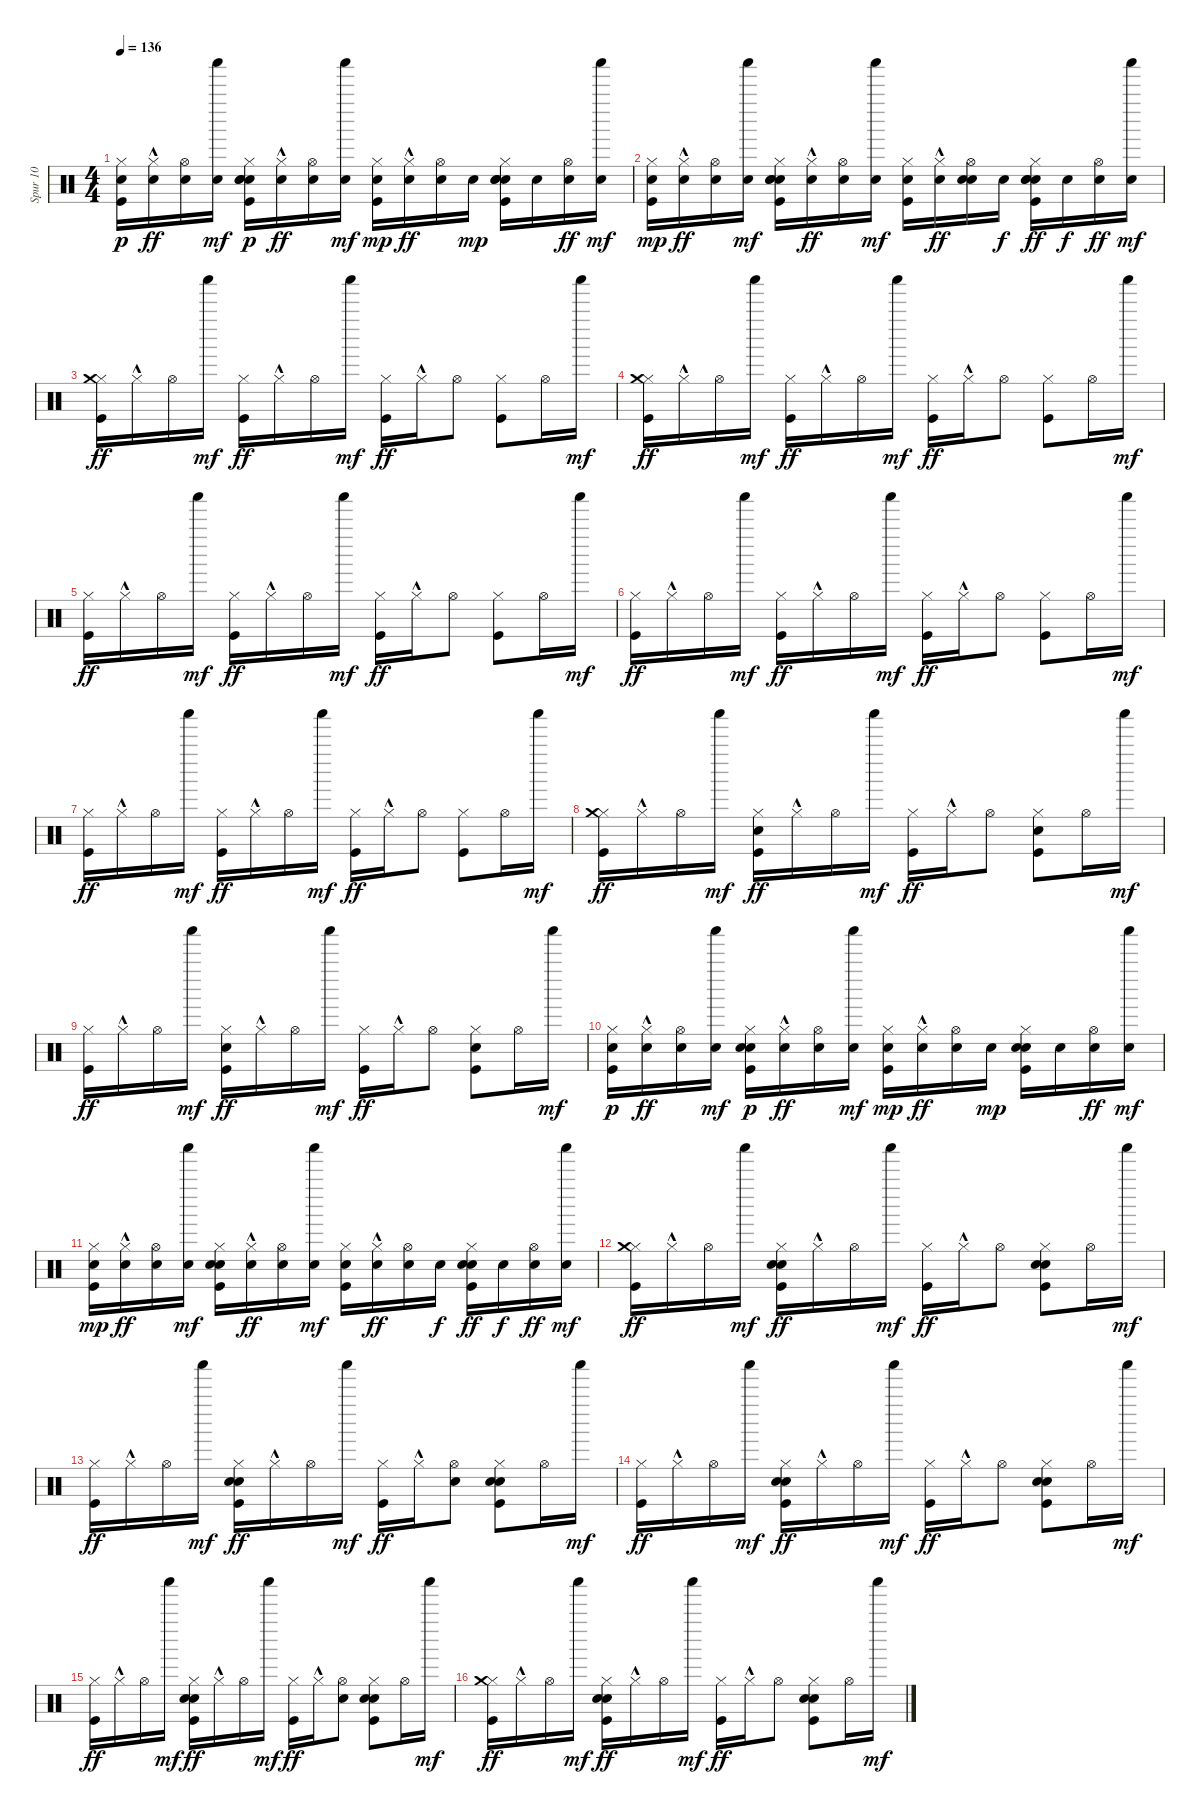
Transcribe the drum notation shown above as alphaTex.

\track ("Spur 10" "Spur 10") {instrument percussion}
\staff {score}
\articulation defaults
\ts (4 4)
\tempo 136
\clef neutral
\ks c
("Kick (hit)" "Snare (hit) 2" "Hi-Hat (closed)").16{dy p} ("Snare (hit) 2" "Hi-Hat (closed)"{hac}).16{dy ff} ("Snare (hit) 2" "Hi-Hat (open)").16 ("Snare (hit) 2" "Shaker (hit)").16{dy mf} ("Kick (hit)" "Electric Snare (hit)" "Snare (hit) 2" "Hi-Hat (closed)" "Hand Clap (hit)").16{dy p} ("Snare (hit) 2" "Hi-Hat (closed)"{hac}).16{dy ff} ("Snare (hit) 2" "Hi-Hat (open)").16 ("Snare (hit) 2" "Shaker (hit)").16{dy mf} ("Kick (hit)" "Snare (hit) 2" "Hi-Hat (closed)").16{dy mp} ("Snare (hit) 2" "Hi-Hat (closed)"{hac}).16{dy ff} ("Snare (hit) 2" "Hi-Hat (open)").16 "Snare (hit) 2".16{dy mp} ("Kick (hit)" "Electric Snare (hit)" "Snare (hit) 2" "Hi-Hat (closed)" "Hand Clap (hit)").16 "Snare (hit) 2".16 ("Snare (hit) 2" "Hi-Hat (open)").16{dy ff} ("Snare (hit) 2" "Shaker (hit)").16{dy mf} |
("Kick (hit)" "Snare (hit) 2" "Hi-Hat (closed)").16{dy mp} ("Snare (hit) 2" "Hi-Hat (closed)"{hac}).16{dy ff} ("Snare (hit) 2" "Hi-Hat (open)").16 ("Snare (hit) 2" "Shaker (hit)").16{dy mf} ("Kick (hit)" "Electric Snare (hit)" "Snare (hit) 2" "Hi-Hat (closed)" "Hand Clap (hit)").16 ("Snare (hit) 2" "Hi-Hat (closed)"{hac}).16{dy ff} ("Snare (hit) 2" "Hi-Hat (open)").16 ("Snare (hit) 2" "Shaker (hit)").16{dy mf} ("Kick (hit)" "Snare (hit) 2" "Hi-Hat (closed)").16 ("Snare (hit) 2" "Hi-Hat (closed)"{hac}).16{dy ff} ("Snare (hit) 2" "Hi-Hat (open)" "Hand Clap (hit)").16 "Snare (hit) 2".16{dy f} ("Kick (hit)" "Electric Snare (hit)" "Snare (hit) 2" "Hi-Hat (closed)" "Hand Clap (hit)").16{dy ff} "Snare (hit) 2".16{dy f} ("Snare (hit) 2" "Hi-Hat (open)").16{dy ff} ("Snare (hit) 2" "Shaker (hit)").16{dy mf} |
("Kick (hit)" "Hi-Hat (closed)" "Crash medium (hit)").16{dy ff} "Hi-Hat (closed)"{hac}.16 "Hi-Hat (open)".16 "Shaker (hit)".16{dy mf} ("Kick (hit)" "Hi-Hat (closed)").16{dy ff} "Hi-Hat (closed)"{hac}.16 "Hi-Hat (open)".16 "Shaker (hit)".16{dy mf} ("Kick (hit)" "Hi-Hat (closed)").16{dy ff} "Hi-Hat (closed)"{hac}.16 "Hi-Hat (open)".8 ("Kick (hit)" "Hi-Hat (closed)").8 "Hi-Hat (open)".16 "Shaker (hit)".16{dy mf} |
("Kick (hit)" "Hi-Hat (closed)" "Crash medium (hit)").16{dy ff} "Hi-Hat (closed)"{hac}.16 "Hi-Hat (open)".16 "Shaker (hit)".16{dy mf} ("Kick (hit)" "Hi-Hat (closed)").16{dy ff} "Hi-Hat (closed)"{hac}.16 "Hi-Hat (open)".16 "Shaker (hit)".16{dy mf} ("Kick (hit)" "Hi-Hat (closed)").16{dy ff} "Hi-Hat (closed)"{hac}.16 "Hi-Hat (open)".8 ("Kick (hit)" "Hi-Hat (closed)").8 "Hi-Hat (open)".16 "Shaker (hit)".16{dy mf} |
("Kick (hit)" "Hi-Hat (closed)").16{dy ff} "Hi-Hat (closed)"{hac}.16 "Hi-Hat (open)".16 "Shaker (hit)".16{dy mf} ("Kick (hit)" "Hi-Hat (closed)").16{dy ff} "Hi-Hat (closed)"{hac}.16 "Hi-Hat (open)".16 "Shaker (hit)".16{dy mf} ("Kick (hit)" "Hi-Hat (closed)").16{dy ff} "Hi-Hat (closed)"{hac}.16 "Hi-Hat (open)".8 ("Kick (hit)" "Hi-Hat (closed)").8 "Hi-Hat (open)".16 "Shaker (hit)".16{dy mf} |
("Kick (hit)" "Hi-Hat (closed)").16{dy ff} "Hi-Hat (closed)"{hac}.16 "Hi-Hat (open)".16 "Shaker (hit)".16{dy mf} ("Kick (hit)" "Hi-Hat (closed)").16{dy ff} "Hi-Hat (closed)"{hac}.16 "Hi-Hat (open)".16 "Shaker (hit)".16{dy mf} ("Kick (hit)" "Hi-Hat (closed)").16{dy ff} "Hi-Hat (closed)"{hac}.16 "Hi-Hat (open)".8 ("Kick (hit)" "Hi-Hat (closed)").8 "Hi-Hat (open)".16 "Shaker (hit)".16{dy mf} |
("Kick (hit)" "Hi-Hat (closed)").16{dy ff} "Hi-Hat (closed)"{hac}.16 "Hi-Hat (open)".16 "Shaker (hit)".16{dy mf} ("Kick (hit)" "Hi-Hat (closed)").16{dy ff} "Hi-Hat (closed)"{hac}.16 "Hi-Hat (open)".16 "Shaker (hit)".16{dy mf} ("Kick (hit)" "Hi-Hat (closed)").16{dy ff} "Hi-Hat (closed)"{hac}.16 "Hi-Hat (open)".8 ("Kick (hit)" "Hi-Hat (closed)").8 "Hi-Hat (open)".16 "Shaker (hit)".16{dy mf} |
("Kick (hit)" "Hi-Hat (closed)" "Crash medium (hit)").16{dy ff} "Hi-Hat (closed)"{hac}.16 "Hi-Hat (open)".16 "Shaker (hit)".16{dy mf} ("Kick (hit)" "Electric Snare (hit)" "Hi-Hat (closed)").16{dy ff} "Hi-Hat (closed)"{hac}.16 "Hi-Hat (open)".16 "Shaker (hit)".16{dy mf} ("Kick (hit)" "Hi-Hat (closed)").16{dy ff} "Hi-Hat (closed)"{hac}.16 "Hi-Hat (open)".8 ("Kick (hit)" "Electric Snare (hit)" "Hi-Hat (closed)").8 "Hi-Hat (open)".16 "Shaker (hit)".16{dy mf} |
("Kick (hit)" "Hi-Hat (closed)").16{dy ff} "Hi-Hat (closed)"{hac}.16 "Hi-Hat (open)".16 "Shaker (hit)".16{dy mf} ("Kick (hit)" "Electric Snare (hit)" "Hi-Hat (closed)").16{dy ff} "Hi-Hat (closed)"{hac}.16 "Hi-Hat (open)".16 "Shaker (hit)".16{dy mf} ("Kick (hit)" "Hi-Hat (closed)").16{dy ff} "Hi-Hat (closed)"{hac}.16 "Hi-Hat (open)".8 ("Kick (hit)" "Electric Snare (hit)" "Hi-Hat (closed)").8 "Hi-Hat (open)".16 "Shaker (hit)".16{dy mf} |
("Kick (hit)" "Snare (hit) 2" "Hi-Hat (closed)").16{dy p} ("Snare (hit) 2" "Hi-Hat (closed)"{hac}).16{dy ff} ("Snare (hit) 2" "Hi-Hat (open)").16 ("Snare (hit) 2" "Shaker (hit)").16{dy mf} ("Kick (hit)" "Electric Snare (hit)" "Snare (hit) 2" "Hi-Hat (closed)").16{dy p} ("Snare (hit) 2" "Hi-Hat (closed)"{hac}).16{dy ff} ("Snare (hit) 2" "Hi-Hat (open)").16 ("Snare (hit) 2" "Shaker (hit)").16{dy mf} ("Kick (hit)" "Snare (hit) 2" "Hi-Hat (closed)").16{dy mp} ("Snare (hit) 2" "Hi-Hat (closed)"{hac}).16{dy ff} ("Snare (hit) 2" "Hi-Hat (open)").16 "Snare (hit) 2".16{dy mp} ("Kick (hit)" "Electric Snare (hit)" "Snare (hit) 2" "Hi-Hat (closed)").16 "Snare (hit) 2".16 ("Snare (hit) 2" "Hi-Hat (open)").16{dy ff} ("Snare (hit) 2" "Shaker (hit)").16{dy mf} |
("Kick (hit)" "Snare (hit) 2" "Hi-Hat (closed)").16{dy mp} ("Snare (hit) 2" "Hi-Hat (closed)"{hac}).16{dy ff} ("Snare (hit) 2" "Hi-Hat (open)").16 ("Snare (hit) 2" "Shaker (hit)").16{dy mf} ("Kick (hit)" "Electric Snare (hit)" "Snare (hit) 2" "Hi-Hat (closed)").16 ("Snare (hit) 2" "Hi-Hat (closed)"{hac}).16{dy ff} ("Snare (hit) 2" "Hi-Hat (open)").16 ("Snare (hit) 2" "Shaker (hit)").16{dy mf} ("Kick (hit)" "Snare (hit) 2" "Hi-Hat (closed)").16 ("Snare (hit) 2" "Hi-Hat (closed)"{hac}).16{dy ff} ("Snare (hit) 2" "Hi-Hat (open)").16 "Snare (hit) 2".16{dy f} ("Kick (hit)" "Electric Snare (hit)" "Snare (hit) 2" "Hi-Hat (closed)").16{dy ff} "Snare (hit) 2".16{dy f} ("Snare (hit) 2" "Hi-Hat (open)").16{dy ff} ("Snare (hit) 2" "Shaker (hit)").16{dy mf} |
("Kick (hit)" "Hi-Hat (closed)" "Crash medium (hit)").16{dy ff} "Hi-Hat (closed)"{hac}.16 "Hi-Hat (open)".16 "Shaker (hit)".16{dy mf} ("Kick (hit)" "Electric Snare (hit)" "Hi-Hat (closed)" "Hand Clap (hit)").16{dy ff} "Hi-Hat (closed)"{hac}.16 "Hi-Hat (open)".16 "Shaker (hit)".16{dy mf} ("Kick (hit)" "Hi-Hat (closed)").16{dy ff} "Hi-Hat (closed)"{hac}.16 "Hi-Hat (open)".8 ("Kick (hit)" "Electric Snare (hit)" "Hi-Hat (closed)" "Hand Clap (hit)").8 "Hi-Hat (open)".16 "Shaker (hit)".16{dy mf} |
("Kick (hit)" "Hi-Hat (closed)").16{dy ff} "Hi-Hat (closed)"{hac}.16 "Hi-Hat (open)".16 "Shaker (hit)".16{dy mf} ("Kick (hit)" "Electric Snare (hit)" "Hi-Hat (closed)" "Hand Clap (hit)").16{dy ff} "Hi-Hat (closed)"{hac}.16 "Hi-Hat (open)".16 "Shaker (hit)".16{dy mf} ("Kick (hit)" "Hi-Hat (closed)").16{dy ff} "Hi-Hat (closed)"{hac}.16 ("Hi-Hat (open)" "Hand Clap (hit)").8 ("Kick (hit)" "Electric Snare (hit)" "Hi-Hat (closed)" "Hand Clap (hit)").8 "Hi-Hat (open)".16 "Shaker (hit)".16{dy mf} |
("Kick (hit)" "Hi-Hat (closed)").16{dy ff} "Hi-Hat (closed)"{hac}.16 "Hi-Hat (open)".16 "Shaker (hit)".16{dy mf} ("Kick (hit)" "Electric Snare (hit)" "Hi-Hat (closed)" "Hand Clap (hit)").16{dy ff} "Hi-Hat (closed)"{hac}.16 "Hi-Hat (open)".16 "Shaker (hit)".16{dy mf} ("Kick (hit)" "Hi-Hat (closed)").16{dy ff} "Hi-Hat (closed)"{hac}.16 "Hi-Hat (open)".8 ("Kick (hit)" "Electric Snare (hit)" "Hi-Hat (closed)" "Hand Clap (hit)").8 "Hi-Hat (open)".16 "Shaker (hit)".16{dy mf} |
("Kick (hit)" "Hi-Hat (closed)").16{dy ff} "Hi-Hat (closed)"{hac}.16 "Hi-Hat (open)".16 "Shaker (hit)".16{dy mf} ("Kick (hit)" "Electric Snare (hit)" "Hi-Hat (closed)" "Hand Clap (hit)").16{dy ff} "Hi-Hat (closed)"{hac}.16 "Hi-Hat (open)".16 "Shaker (hit)".16{dy mf} ("Kick (hit)" "Hi-Hat (closed)").16{dy ff} "Hi-Hat (closed)"{hac}.16 ("Hi-Hat (open)" "Hand Clap (hit)").8 ("Kick (hit)" "Electric Snare (hit)" "Hi-Hat (closed)" "Hand Clap (hit)").8 "Hi-Hat (open)".16 "Shaker (hit)".16{dy mf} |
("Kick (hit)" "Hi-Hat (closed)" "Crash medium (hit)").16{dy ff} "Hi-Hat (closed)"{hac}.16 "Hi-Hat (open)".16 "Shaker (hit)".16{dy mf} ("Kick (hit)" "Electric Snare (hit)" "Hi-Hat (closed)" "Hand Clap (hit)").16{dy ff} "Hi-Hat (closed)"{hac}.16 "Hi-Hat (open)".16 "Shaker (hit)".16{dy mf} ("Kick (hit)" "Hi-Hat (closed)").16{dy ff} "Hi-Hat (closed)"{hac}.16 "Hi-Hat (open)".8 ("Kick (hit)" "Electric Snare (hit)" "Hi-Hat (closed)" "Hand Clap (hit)").8 "Hi-Hat (open)".16 "Shaker (hit)".16{dy mf}
